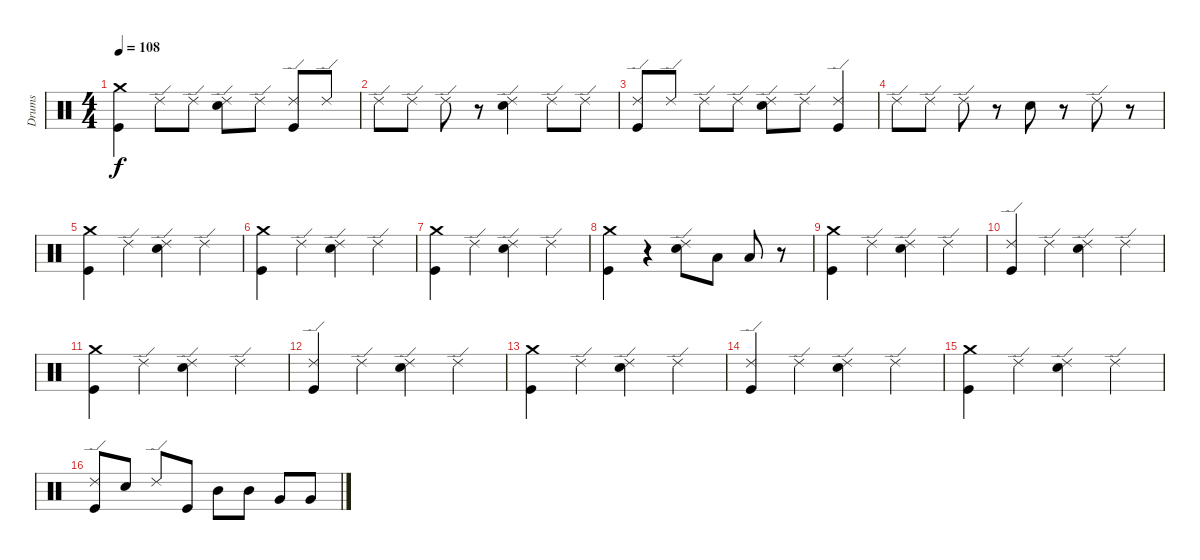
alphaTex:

\track ("Drums" "Drums") {instrument percussion}
\staff {score}
\articulation defaults
\ts (4 4)
\tempo 108
\clef neutral
\ks c
("Kick (hit)" "Crash medium (hit)").4{dy f} "Ride (edge) 2".8 "Ride (edge) 2".8 ("Snare (hit) 2" "Ride (edge) 2").8 "Ride (edge) 2".8 ("Kick (hit)" "Ride (edge) 2").8 "Ride (edge) 2".8 |
"Ride (edge) 2".8 "Ride (edge) 2".8 "Ride (edge) 2".8 r.8 ("Ride (edge) 2" "Snare (hit) 2").4 "Ride (edge) 2".8 "Ride (edge) 2".8 |
("Ride (edge) 2" "Kick (hit)").8 "Ride (edge) 2".8 "Ride (edge) 2".8 "Ride (edge) 2".8 ("Ride (edge) 2" "Snare (hit) 2").8 "Ride (edge) 2".8 ("Ride (edge) 2" "Kick (hit)").4 |
"Ride (edge) 2".8 "Ride (edge) 2".8 "Ride (edge) 2".8 r.8 "Snare (hit) 2".8 r.8 "Ride (edge) 2".8 r.8 |
("Crash medium (hit)" "Kick (hit)").4 "Ride (edge) 2".4 ("Snare (hit) 2" "Ride (edge) 2").4 "Ride (edge) 2".4 |
("Crash medium (hit)" "Kick (hit)").4 "Ride (edge) 2".4 ("Snare (hit) 2" "Ride (edge) 2").4 "Ride (edge) 2".4 |
("Crash medium (hit)" "Kick (hit)").4 "Ride (edge) 2".4 ("Snare (hit) 2" "Ride (edge) 2").4 "Ride (edge) 2".4 |
("Crash medium (hit)" "Kick (hit)").4 r.4 ("Ride (edge) 2" "Snare (hit) 2").8 "Low Floor Tom (hit)".8 "Low Floor Tom (hit)".8 r.8 |
("Crash medium (hit)" "Kick (hit)").4 "Ride (edge) 2".4 ("Snare (hit) 2" "Ride (edge) 2").4 "Ride (edge) 2".4 |
("Ride (edge) 2" "Kick (hit)").4 "Ride (edge) 2".4 ("Ride (edge) 2" "Snare (hit) 2").4 "Ride (edge) 2".4 |
("Crash medium (hit)" "Kick (hit)").4 "Ride (edge) 2".4 ("Snare (hit) 2" "Ride (edge) 2").4 "Ride (edge) 2".4 |
("Ride (edge) 2" "Kick (hit)").4 "Ride (edge) 2".4 ("Ride (edge) 2" "Snare (hit) 2").4 "Ride (edge) 2".4 |
("Crash medium (hit)" "Kick (hit)").4 "Ride (edge) 2".4 ("Snare (hit) 2" "Ride (edge) 2").4 "Ride (edge) 2".4 |
("Ride (edge) 2" "Kick (hit)").4 "Ride (edge) 2".4 ("Ride (edge) 2" "Snare (hit) 2").4 "Ride (edge) 2".4 |
("Crash medium (hit)" "Kick (hit)").4 "Ride (edge) 2".4 ("Ride (edge) 2" "Snare (hit) 2").4 "Ride (edge) 2".4 |
("Kick (hit)" "Ride (edge) 2").8 "Snare (hit) 2".8 "Ride (edge) 2".8 "Kick (hit)".8 "Mid Tom (hit)".8 "Mid Tom (hit)".8 "Very Low Tom (hit)".8 "Very Low Tom (hit)".8
